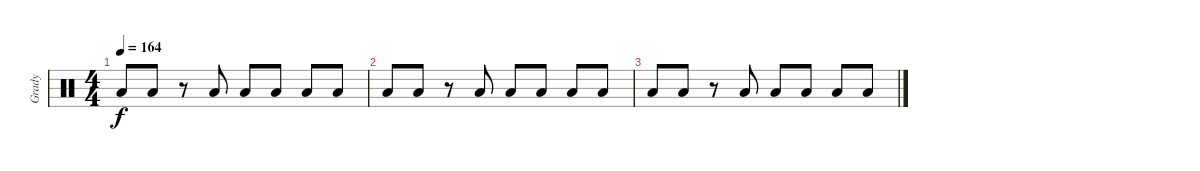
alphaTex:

\track ("Grady" "Grady") {instrument percussion}
\staff {score}
\articulation defaults
\ts (4 4)
\tempo 164
\clef neutral
\ks c "Low Tom (hit)".8{dy f} "Low Tom (hit)".8
r.8 "Low Tom (hit)".8 "Low Tom (hit)".8 "Low Tom (hit)".8 "Low Tom (hit)".8 "Low Tom (hit)".8 |
"Low Tom (hit)".8 "Low Tom (hit)".8 r.8 "Low Tom (hit)".8 "Low Tom (hit)".8 "Low Tom (hit)".8 "Low Tom (hit)".8 "Low Tom (hit)".8 |
"Low Tom (hit)".8 "Low Tom (hit)".8 r.8 "Low Tom (hit)".8 "Low Tom (hit)".8 "Low Tom (hit)".8 "Low Tom (hit)".8 "Low Tom (hit)".8
